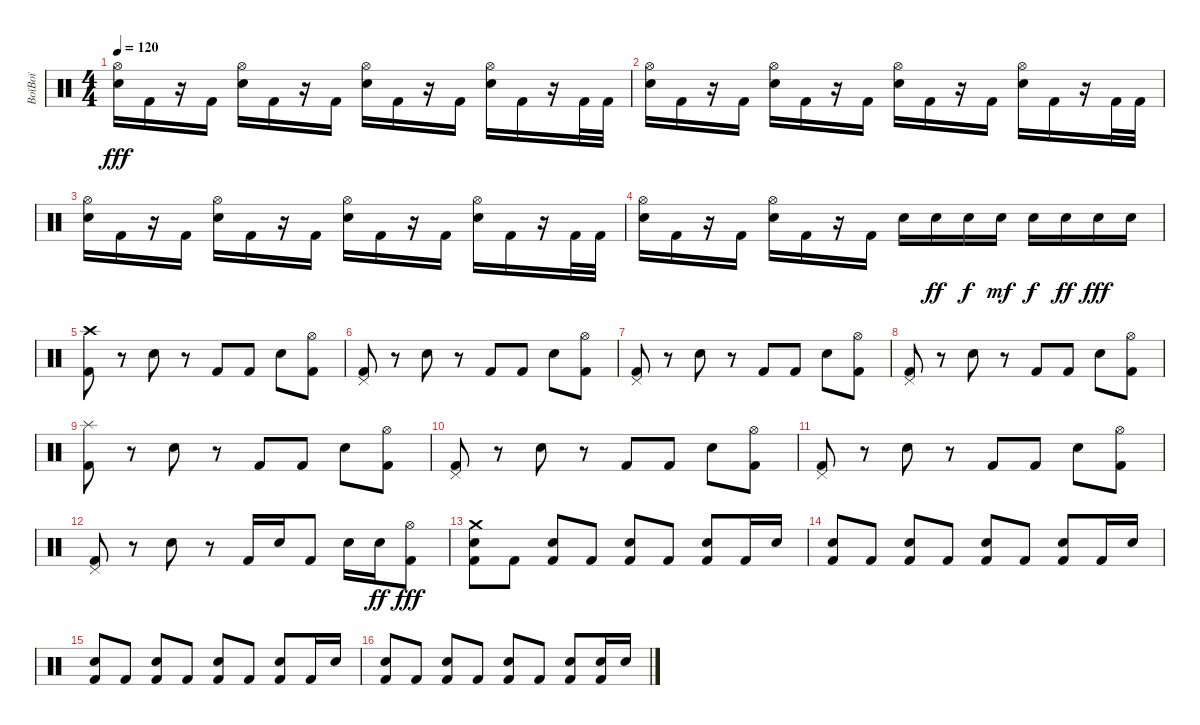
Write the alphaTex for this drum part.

\track ("BoïBoï" "BoïBoï") {instrument percussion}
\staff {score}
\articulation defaults
\ts (4 4)
\tempo 120
\clef neutral
\ks c
("Hi-Hat (open)" "Electric Snare (hit)").16{dy fff} "Kick (hit) 2".16 r.16 "Kick (hit) 2".16 ("Hi-Hat (open)" "Electric Snare (hit)").16 "Kick (hit) 2".16 r.16 "Kick (hit) 2".16 ("Hi-Hat (open)" "Electric Snare (hit)").16 "Kick (hit) 2".16 r.16 "Kick (hit) 2".16 ("Hi-Hat (open)" "Electric Snare (hit)").16 "Kick (hit) 2".16 r.16 "Kick (hit) 2".32 "Kick (hit) 2".32 |
("Hi-Hat (open)" "Electric Snare (hit)").16 "Kick (hit) 2".16 r.16 "Kick (hit) 2".16 ("Hi-Hat (open)" "Electric Snare (hit)").16 "Kick (hit) 2".16 r.16 "Kick (hit) 2".16 ("Hi-Hat (open)" "Electric Snare (hit)").16 "Kick (hit) 2".16 r.16 "Kick (hit) 2".16 ("Hi-Hat (open)" "Electric Snare (hit)").16 "Kick (hit) 2".16 r.16 "Kick (hit) 2".32 "Kick (hit) 2".32 |
("Hi-Hat (open)" "Electric Snare (hit)").16 "Kick (hit) 2".16 r.16 "Kick (hit) 2".16 ("Hi-Hat (open)" "Electric Snare (hit)").16 "Kick (hit) 2".16 r.16 "Kick (hit) 2".16 ("Hi-Hat (open)" "Electric Snare (hit)").16 "Kick (hit) 2".16 r.16 "Kick (hit) 2".16 ("Hi-Hat (open)" "Electric Snare (hit)").16 "Kick (hit) 2".16 r.16 "Kick (hit) 2".32 "Kick (hit) 2".32 |
("Hi-Hat (open)" "Electric Snare (hit)").16 "Kick (hit) 2".16 r.16 "Kick (hit) 2".16 ("Hi-Hat (open)" "Electric Snare (hit)").16 "Kick (hit) 2".16 r.16 "Kick (hit) 2".16 "Electric Snare (hit)".16 "Electric Snare (hit)".16{dy ff} "Electric Snare (hit)".16{dy f} "Electric Snare (hit)".16{dy mf} "Electric Snare (hit)".16{dy f} "Electric Snare (hit)".16{dy ff} "Electric Snare (hit)".16{dy fff} "Electric Snare (hit)".16 |
("Crash high (hit)" "Kick (hit) 2").8 r.8 "Electric Snare (hit)".8 r.8 "Kick (hit) 2".8 "Kick (hit) 2".8 "Electric Snare (hit)".8 ("Hi-Hat (open)" "Kick (hit) 2").8 |
("Pedal Hi-Hat (hit)" "Kick (hit) 2").8 r.8 "Electric Snare (hit)".8 r.8 "Kick (hit) 2".8 "Kick (hit) 2".8 "Electric Snare (hit)".8 ("Hi-Hat (open)" "Kick (hit) 2").8 |
("Pedal Hi-Hat (hit)" "Kick (hit) 2").8 r.8 "Electric Snare (hit)".8 r.8 "Kick (hit) 2".8 "Kick (hit) 2".8 "Electric Snare (hit)".8 ("Hi-Hat (open)" "Kick (hit) 2").8 |
("Pedal Hi-Hat (hit)" "Kick (hit) 2").8 r.8 "Electric Snare (hit)".8 r.8 "Kick (hit) 2".8 "Kick (hit) 2".8 "Electric Snare (hit)".8 ("Hi-Hat (open)" "Kick (hit) 2").8 |
("Splash (hit)" "Kick (hit) 2").8 r.8 "Electric Snare (hit)".8 r.8 "Kick (hit) 2".8 "Kick (hit) 2".8 "Electric Snare (hit)".8 ("Hi-Hat (open)" "Kick (hit) 2").8 |
("Pedal Hi-Hat (hit)" "Kick (hit) 2").8 r.8 "Electric Snare (hit)".8 r.8 "Kick (hit) 2".8 "Kick (hit) 2".8 "Electric Snare (hit)".8 ("Hi-Hat (open)" "Kick (hit) 2").8 |
("Pedal Hi-Hat (hit)" "Kick (hit) 2").8 r.8 "Electric Snare (hit)".8 r.8 "Kick (hit) 2".8 "Kick (hit) 2".8 "Electric Snare (hit)".8 ("Hi-Hat (open)" "Kick (hit) 2").8 |
("Pedal Hi-Hat (hit)" "Kick (hit) 2").8 r.8 "Electric Snare (hit)".8 r.8 "Kick (hit) 2".16 "Electric Snare (hit)".16 "Kick (hit) 2".8 "Electric Snare (hit)".16 "Electric Snare (hit)".16{dy ff} ("Hi-Hat (open)" "Kick (hit) 2").8{dy fff} |
("Crash medium (hit)" "Electric Snare (hit)" "Kick (hit) 2").8 "Kick (hit) 2".8 ("Electric Snare (hit)" "Kick (hit) 2").8 "Kick (hit) 2".8 ("Electric Snare (hit)" "Kick (hit) 2").8 "Kick (hit) 2".8 ("Electric Snare (hit)" "Kick (hit) 2").8 "Kick (hit) 2".16 "Electric Snare (hit)".16 |
("Electric Snare (hit)" "Kick (hit) 2").8 "Kick (hit) 2".8 ("Electric Snare (hit)" "Kick (hit) 2").8 "Kick (hit) 2".8 ("Electric Snare (hit)" "Kick (hit) 2").8 "Kick (hit) 2".8 ("Electric Snare (hit)" "Kick (hit) 2").8 "Kick (hit) 2".16 "Electric Snare (hit)".16 |
("Electric Snare (hit)" "Kick (hit) 2").8 "Kick (hit) 2".8 ("Electric Snare (hit)" "Kick (hit) 2").8 "Kick (hit) 2".8 ("Electric Snare (hit)" "Kick (hit) 2").8 "Kick (hit) 2".8 ("Electric Snare (hit)" "Kick (hit) 2").8 "Kick (hit) 2".16 "Electric Snare (hit)".16 |
("Electric Snare (hit)" "Kick (hit) 2").8 "Kick (hit) 2".8 ("Electric Snare (hit)" "Kick (hit) 2").8 "Kick (hit) 2".8 ("Electric Snare (hit)" "Kick (hit) 2").8 "Kick (hit) 2".8 ("Electric Snare (hit)" "Kick (hit) 2").8 ("Electric Snare (hit)" "Kick (hit) 2").16 "Electric Snare (hit)".16
